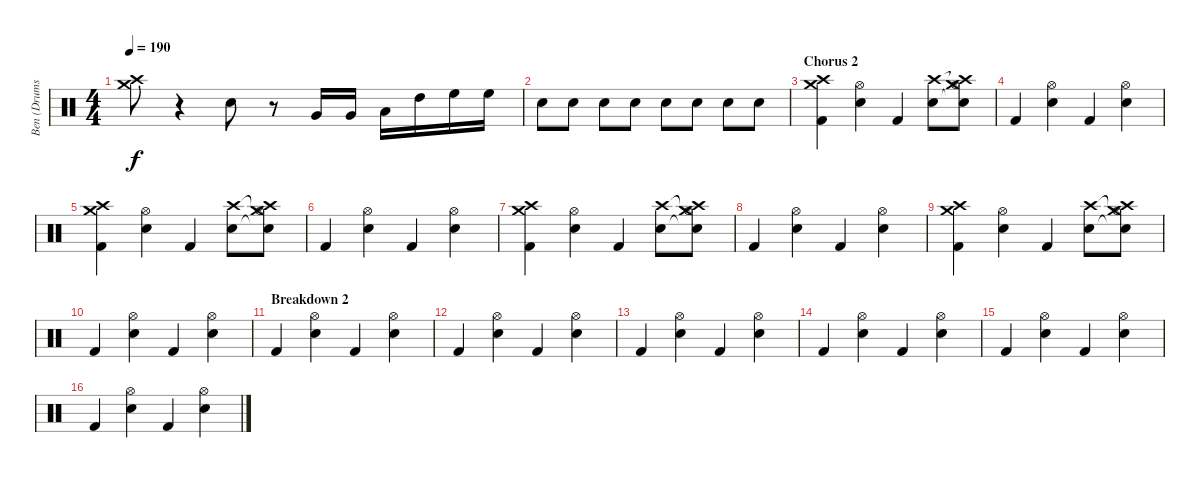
\track ("Ben (Drums)" "Ben (Drums") {instrument percussion}
\staff {score}
\articulation defaults
\ts (4 4)
\tempo 190
\clef neutral
\ks c
("Crash medium (hit)" "Crash high (hit)").8{dy f} r.4 "Snare (hit) 2".8 r.8 "Very Low Tom (hit)".16 "Very Low Tom (hit)".16 "Low Tom (hit)".16 "High Tom (hit)".16 "High Floor Tom (hit)".16 "High Floor Tom (hit)".16 |
"Snare (hit) 2".8{volume 16} "Snare (hit) 2".8 "Snare (hit) 2".8 "Snare (hit) 2".8 "Snare (hit) 2".8 "Snare (hit) 2".8 "Snare (hit) 2".8 "Snare (hit) 2".8 |
\section ("" "Chorus 2")
("Kick (hit) 2" "Crash medium (hit)" "Crash high (hit)").4 ("Snare (hit) 2" "Hi-Hat (open)").4 "Kick (hit) 2".4 ("Snare (hit) 2" "Crash high (hit)").8 ("Snare (hit) 2"{t} "Hi-Hat (open)"{t} "Crash medium (hit)" "Crash high (hit)").8 |
"Kick (hit) 2".4 ("Snare (hit) 2" "Hi-Hat (open)").4 "Kick (hit) 2".4 ("Snare (hit) 2" "Hi-Hat (open)").4 |
("Kick (hit) 2" "Crash medium (hit)" "Crash high (hit)").4 ("Snare (hit) 2" "Hi-Hat (open)").4 "Kick (hit) 2".4 ("Snare (hit) 2" "Crash high (hit)").8 ("Snare (hit) 2"{t} "Hi-Hat (open)"{t} "Crash medium (hit)" "Crash high (hit)").8 |
"Kick (hit) 2".4 ("Snare (hit) 2" "Hi-Hat (open)").4 "Kick (hit) 2".4 ("Snare (hit) 2" "Hi-Hat (open)").4 |
("Kick (hit) 2" "Crash medium (hit)" "Crash high (hit)").4 ("Snare (hit) 2" "Hi-Hat (open)").4 "Kick (hit) 2".4 ("Snare (hit) 2" "Crash high (hit)").8 ("Snare (hit) 2"{t} "Hi-Hat (open)"{t} "Crash medium (hit)" "Crash high (hit)").8 |
"Kick (hit) 2".4 ("Snare (hit) 2" "Hi-Hat (open)").4 "Kick (hit) 2".4 ("Snare (hit) 2" "Hi-Hat (open)").4 |
("Kick (hit) 2" "Crash medium (hit)" "Crash high (hit)").4 ("Snare (hit) 2" "Hi-Hat (open)").4 "Kick (hit) 2".4 ("Snare (hit) 2" "Crash high (hit)").8 ("Snare (hit) 2"{t} "Hi-Hat (open)"{t} "Crash medium (hit)" "Crash high (hit)").8 |
"Kick (hit) 2".4 ("Snare (hit) 2" "Hi-Hat (open)").4 "Kick (hit) 2".4 ("Snare (hit) 2" "Hi-Hat (open)").4 |
\section ("" "Breakdown 2")
"Kick (hit) 2".4{volume 14} ("Snare (hit) 2" "Hi-Hat (open)").4 "Kick (hit) 2".4 ("Snare (hit) 2" "Hi-Hat (open)").4 |
"Kick (hit) 2".4 ("Snare (hit) 2" "Hi-Hat (open)").4 "Kick (hit) 2".4 ("Snare (hit) 2" "Hi-Hat (open)").4 |
"Kick (hit) 2".4 ("Snare (hit) 2" "Hi-Hat (open)").4 "Kick (hit) 2".4 ("Snare (hit) 2" "Hi-Hat (open)").4 |
"Kick (hit) 2".4 ("Snare (hit) 2" "Hi-Hat (open)").4 "Kick (hit) 2".4 ("Snare (hit) 2" "Hi-Hat (open)").4 |
"Kick (hit) 2".4 ("Snare (hit) 2" "Hi-Hat (open)").4 "Kick (hit) 2".4 ("Snare (hit) 2" "Hi-Hat (open)").4 |
"Kick (hit) 2".4 ("Snare (hit) 2" "Hi-Hat (open)").4 "Kick (hit) 2".4 ("Snare (hit) 2" "Hi-Hat (open)").4
